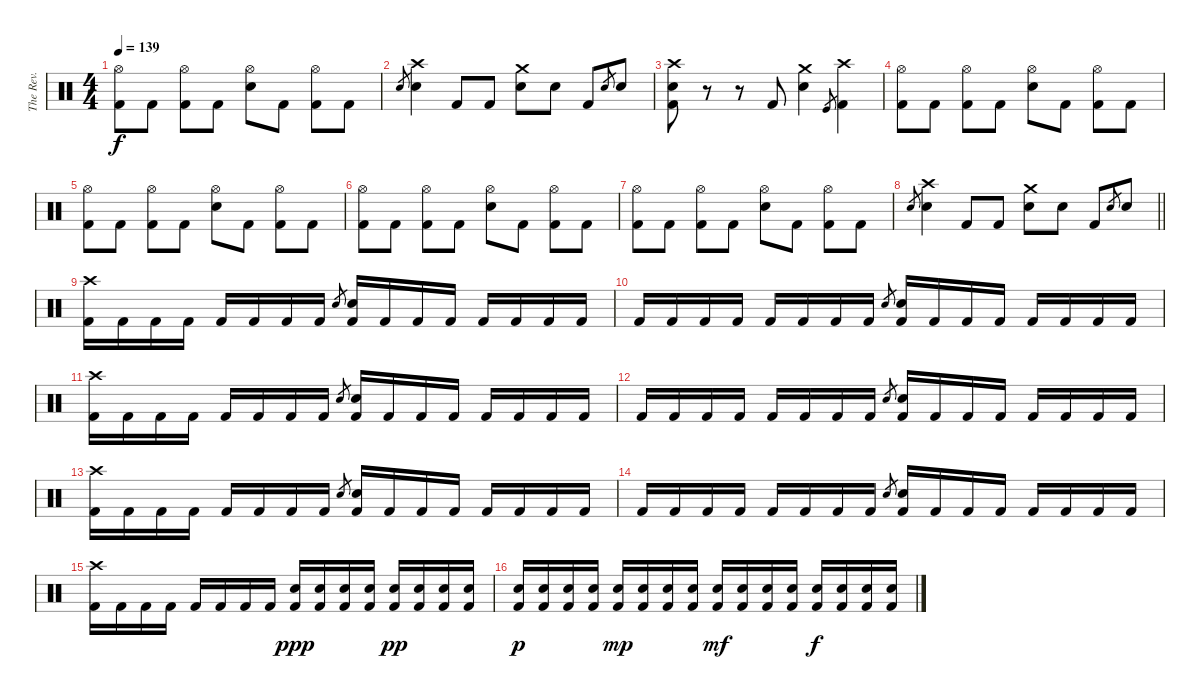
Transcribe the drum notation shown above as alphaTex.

\track ("The Rev." "The Rev.") {instrument percussion}
\staff {score}
\articulation defaults
\ts (4 4)
\tempo 139
\clef neutral
\ks c
("Hi-Hat (open)" "Kick (hit) 2").8{dy f} "Kick (hit) 2".8 ("Hi-Hat (open)" "Kick (hit) 2").8 "Kick (hit) 2".8 ("Hi-Hat (open)" "Electric Snare (hit)").8 "Kick (hit) 2".8 ("Hi-Hat (open)" "Kick (hit) 2").8 "Kick (hit) 2".8 |
"Electric Snare (hit)".8{gr} ("Crash high (hit)" "Electric Snare (hit)").4 "Kick (hit) 2".8 "Kick (hit) 2".8 ("Crash medium (hit)" "Electric Snare (hit)").8 "Electric Snare (hit)".8 "Kick (hit) 2".8 "Electric Snare (hit)".8{gr} "Electric Snare (hit)".8 |
("Crash high (hit)" "Electric Snare (hit)" "Kick (hit) 2").8 r.8 r.8 "Kick (hit) 2".8 ("Crash medium (hit)" "Electric Snare (hit)").4 "Kick (hit)".8{gr} ("Crash high (hit)" "Kick (hit) 2").4 |
("Hi-Hat (open)" "Kick (hit) 2").8 "Kick (hit) 2".8 ("Hi-Hat (open)" "Kick (hit) 2").8 "Kick (hit) 2".8 ("Hi-Hat (open)" "Electric Snare (hit)").8 "Kick (hit) 2".8 ("Hi-Hat (open)" "Kick (hit) 2").8 "Kick (hit) 2".8 |
("Hi-Hat (open)" "Kick (hit) 2").8 "Kick (hit) 2".8 ("Hi-Hat (open)" "Kick (hit) 2").8 "Kick (hit) 2".8 ("Hi-Hat (open)" "Electric Snare (hit)").8 "Kick (hit) 2".8 ("Hi-Hat (open)" "Kick (hit) 2").8 "Kick (hit) 2".8 |
("Hi-Hat (open)" "Kick (hit) 2").8 "Kick (hit) 2".8 ("Hi-Hat (open)" "Kick (hit) 2").8 "Kick (hit) 2".8 ("Hi-Hat (open)" "Electric Snare (hit)").8 "Kick (hit) 2".8 ("Hi-Hat (open)" "Kick (hit) 2").8 "Kick (hit) 2".8 |
("Hi-Hat (open)" "Kick (hit) 2").8 "Kick (hit) 2".8 ("Hi-Hat (open)" "Kick (hit) 2").8 "Kick (hit) 2".8 ("Hi-Hat (open)" "Electric Snare (hit)").8 "Kick (hit) 2".8 ("Hi-Hat (open)" "Kick (hit) 2").8 "Kick (hit) 2".8 |
\barLineRight lightlight "Electric Snare (hit)".8{gr}
("Crash high (hit)" "Electric Snare (hit)").4 "Kick (hit) 2".8 "Kick (hit) 2".8 ("Crash medium (hit)" "Electric Snare (hit)").8 "Electric Snare (hit)".8 "Kick (hit) 2".8 "Electric Snare (hit)".8{gr} "Electric Snare (hit)".8 |
\section ("" " ")
("Crash high (hit)" "Kick (hit) 2").16 "Kick (hit) 2".16 "Kick (hit) 2".16 "Kick (hit) 2".16 "Kick (hit) 2".16 "Kick (hit) 2".16 "Kick (hit) 2".16 "Kick (hit) 2".16 "Electric Snare (hit)".8{gr} ("Electric Snare (hit)" "Kick (hit) 2").16 "Kick (hit) 2".16 "Kick (hit) 2".16 "Kick (hit) 2".16 "Kick (hit) 2".16 "Kick (hit) 2".16 "Kick (hit) 2".16 "Kick (hit) 2".16 |
"Kick (hit) 2".16 "Kick (hit) 2".16 "Kick (hit) 2".16 "Kick (hit) 2".16 "Kick (hit) 2".16 "Kick (hit) 2".16 "Kick (hit) 2".16 "Kick (hit) 2".16 "Electric Snare (hit)".8{gr} ("Electric Snare (hit)" "Kick (hit) 2").16 "Kick (hit) 2".16 "Kick (hit) 2".16 "Kick (hit) 2".16 "Kick (hit) 2".16 "Kick (hit) 2".16 "Kick (hit) 2".16 "Kick (hit) 2".16 |
("Crash high (hit)" "Kick (hit) 2").16 "Kick (hit) 2".16 "Kick (hit) 2".16 "Kick (hit) 2".16 "Kick (hit) 2".16 "Kick (hit) 2".16 "Kick (hit) 2".16 "Kick (hit) 2".16 "Electric Snare (hit)".8{gr} ("Electric Snare (hit)" "Kick (hit) 2").16 "Kick (hit) 2".16 "Kick (hit) 2".16 "Kick (hit) 2".16 "Kick (hit) 2".16 "Kick (hit) 2".16 "Kick (hit) 2".16 "Kick (hit) 2".16 |
"Kick (hit) 2".16 "Kick (hit) 2".16 "Kick (hit) 2".16 "Kick (hit) 2".16 "Kick (hit) 2".16 "Kick (hit) 2".16 "Kick (hit) 2".16 "Kick (hit) 2".16 "Electric Snare (hit)".8{gr} ("Electric Snare (hit)" "Kick (hit) 2").16 "Kick (hit) 2".16 "Kick (hit) 2".16 "Kick (hit) 2".16 "Kick (hit) 2".16 "Kick (hit) 2".16 "Kick (hit) 2".16 "Kick (hit) 2".16 |
("Crash high (hit)" "Kick (hit) 2").16 "Kick (hit) 2".16 "Kick (hit) 2".16 "Kick (hit) 2".16 "Kick (hit) 2".16 "Kick (hit) 2".16 "Kick (hit) 2".16 "Kick (hit) 2".16 "Electric Snare (hit)".8{gr} ("Electric Snare (hit)" "Kick (hit) 2").16 "Kick (hit) 2".16 "Kick (hit) 2".16 "Kick (hit) 2".16 "Kick (hit) 2".16 "Kick (hit) 2".16 "Kick (hit) 2".16 "Kick (hit) 2".16 |
"Kick (hit) 2".16 "Kick (hit) 2".16 "Kick (hit) 2".16 "Kick (hit) 2".16 "Kick (hit) 2".16 "Kick (hit) 2".16 "Kick (hit) 2".16 "Kick (hit) 2".16 "Electric Snare (hit)".8{gr} ("Electric Snare (hit)" "Kick (hit) 2").16 "Kick (hit) 2".16 "Kick (hit) 2".16 "Kick (hit) 2".16 "Kick (hit) 2".16 "Kick (hit) 2".16 "Kick (hit) 2".16 "Kick (hit) 2".16 |
("Crash high (hit)" "Kick (hit) 2").16 "Kick (hit) 2".16 "Kick (hit) 2".16 "Kick (hit) 2".16 "Kick (hit) 2".16 "Kick (hit) 2".16 "Kick (hit) 2".16 "Kick (hit) 2".16 ("Electric Snare (hit)" "Kick (hit) 2").16{dy ppp} ("Electric Snare (hit)" "Kick (hit) 2").16 ("Electric Snare (hit)" "Kick (hit) 2").16 ("Electric Snare (hit)" "Kick (hit) 2").16 ("Electric Snare (hit)" "Kick (hit) 2").16{dy pp} ("Electric Snare (hit)" "Kick (hit) 2").16 ("Electric Snare (hit)" "Kick (hit) 2").16 ("Electric Snare (hit)" "Kick (hit) 2").16 |
("Electric Snare (hit)" "Kick (hit) 2").16{dy p} ("Electric Snare (hit)" "Kick (hit) 2").16 ("Electric Snare (hit)" "Kick (hit) 2").16 ("Electric Snare (hit)" "Kick (hit) 2").16 ("Electric Snare (hit)" "Kick (hit) 2").16{dy mp} ("Electric Snare (hit)" "Kick (hit) 2").16 ("Electric Snare (hit)" "Kick (hit) 2").16 ("Electric Snare (hit)" "Kick (hit) 2").16 ("Electric Snare (hit)" "Kick (hit) 2").16{dy mf} ("Electric Snare (hit)" "Kick (hit) 2").16 ("Electric Snare (hit)" "Kick (hit) 2").16 ("Electric Snare (hit)" "Kick (hit) 2").16 ("Electric Snare (hit)" "Kick (hit) 2").16{dy f} ("Electric Snare (hit)" "Kick (hit) 2").16 ("Electric Snare (hit)" "Kick (hit) 2").16 ("Electric Snare (hit)" "Kick (hit) 2").16
